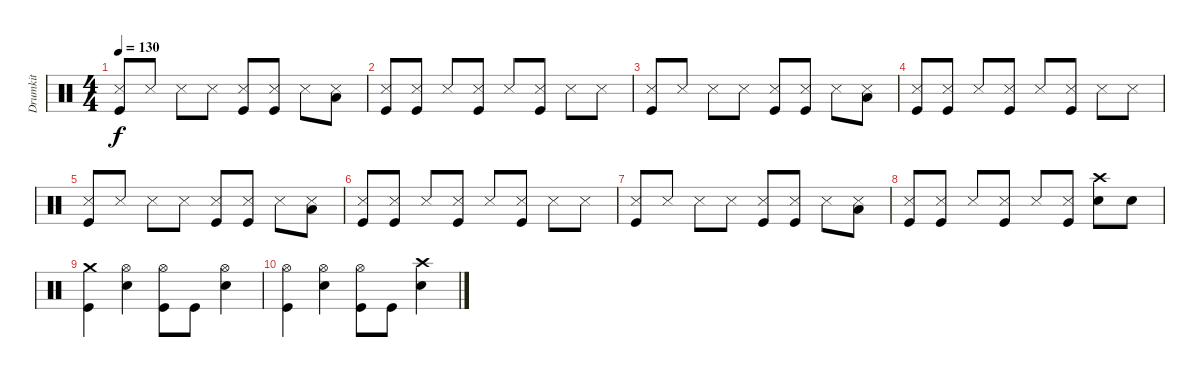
\track ("Drumkit" "Drumkit") {instrument percussion}
\staff {score}
\articulation defaults
\ts (4 4)
\tempo 130
\clef neutral
\ks c
("Snare (side stick) 3" "Kick (hit)").8{dy f} "Snare (side stick) 3".8 "Snare (side stick) 3".8 "Snare (side stick) 3".8 ("Snare (side stick) 3" "Kick (hit)").8 ("Snare (side stick) 3" "Kick (hit)").8 "Snare (side stick) 3".8 ("Snare (side stick) 3" "Low Tom (hit)").8 |
("Snare (side stick) 3" "Kick (hit)").8 ("Snare (side stick) 3" "Kick (hit)").8 "Snare (side stick) 3".8 ("Snare (side stick) 3" "Kick (hit)").8 "Snare (side stick) 3".8 ("Snare (side stick) 3" "Kick (hit)").8 "Snare (side stick) 3".8 "Snare (side stick) 3".8 |
("Snare (side stick) 3" "Kick (hit)").8 "Snare (side stick) 3".8 "Snare (side stick) 3".8 "Snare (side stick) 3".8 ("Snare (side stick) 3" "Kick (hit)").8 ("Snare (side stick) 3" "Kick (hit)").8 "Snare (side stick) 3".8 ("Snare (side stick) 3" "Low Tom (hit)").8 |
("Snare (side stick) 3" "Kick (hit)").8 ("Snare (side stick) 3" "Kick (hit)").8 "Snare (side stick) 3".8 ("Snare (side stick) 3" "Kick (hit)").8 "Snare (side stick) 3".8 ("Snare (side stick) 3" "Kick (hit)").8 "Snare (side stick) 3".8 "Snare (side stick) 3".8 |
("Snare (side stick) 3" "Kick (hit)").8 "Snare (side stick) 3".8 "Snare (side stick) 3".8 "Snare (side stick) 3".8 ("Snare (side stick) 3" "Kick (hit)").8 ("Snare (side stick) 3" "Kick (hit)").8 "Snare (side stick) 3".8 ("Snare (side stick) 3" "Low Tom (hit)").8 |
("Snare (side stick) 3" "Kick (hit)").8 ("Snare (side stick) 3" "Kick (hit)").8 "Snare (side stick) 3".8 ("Snare (side stick) 3" "Kick (hit)").8 "Snare (side stick) 3".8 ("Snare (side stick) 3" "Kick (hit)").8 "Snare (side stick) 3".8 "Snare (side stick) 3".8 |
("Snare (side stick) 3" "Kick (hit)").8 "Snare (side stick) 3".8 "Snare (side stick) 3".8 "Snare (side stick) 3".8 ("Snare (side stick) 3" "Kick (hit)").8 ("Snare (side stick) 3" "Kick (hit)").8 "Snare (side stick) 3".8 ("Snare (side stick) 3" "Low Tom (hit)").8 |
("Snare (side stick) 3" "Kick (hit)").8 ("Snare (side stick) 3" "Kick (hit)").8 "Snare (side stick) 3".8 ("Snare (side stick) 3" "Kick (hit)").8 "Snare (side stick) 3".8 ("Snare (side stick) 3" "Kick (hit)").8 ("Crash high (hit)" "Snare (hit) 2").8 "Snare (hit) 2".8 |
("Crash medium (hit)" "Kick (hit)").4 ("Hi-Hat (open)" "Snare (hit) 2").4 ("Hi-Hat (open)" "Kick (hit)").8 "Kick (hit)".8 ("Hi-Hat (open)" "Snare (hit) 2").4 |
("Hi-Hat (open)" "Kick (hit)").4 ("Hi-Hat (open)" "Snare (hit) 2").4 ("Hi-Hat (open)" "Kick (hit)").8 "Kick (hit)".8 ("Crash high (hit)" "Snare (hit) 2").4
